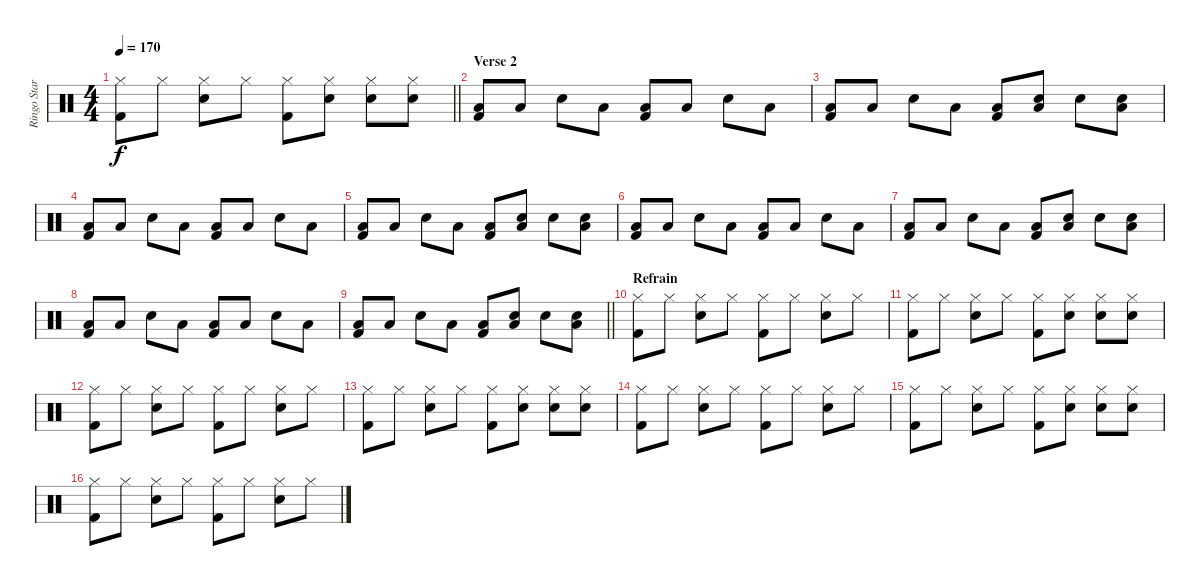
\track ("Ringo Star (Thomas)" "Ringo Star") {instrument percussion}
\staff {score}
\articulation defaults
\ts (4 4)
\tempo 170
\clef neutral
\barLineRight lightlight
\ks c
("Hi-Hat (closed)" "Kick (hit) 2").8{dy f} "Hi-Hat (closed)".8 ("Hi-Hat (closed)" "Snare (hit) 2").8 "Hi-Hat (closed)".8 ("Hi-Hat (closed)" "Kick (hit) 2").8 ("Hi-Hat (closed)" "Snare (hit) 2").8 ("Hi-Hat (closed)" "Snare (hit) 2").8 ("Hi-Hat (closed)" "Snare (hit) 2").8 |
\section ("" "Verse 2")
("Low Tom (hit)" "Kick (hit) 2").8 "Low Tom (hit)".8 "Snare (hit) 2".8 "Low Tom (hit)".8 ("Low Tom (hit)" "Kick (hit) 2").8 "Low Tom (hit)".8 "Snare (hit) 2".8 "Low Tom (hit)".8 |
("Low Tom (hit)" "Kick (hit) 2").8 "Low Tom (hit)".8 "Snare (hit) 2".8 "Low Tom (hit)".8 ("Low Tom (hit)" "Kick (hit) 2").8 ("Low Tom (hit)" "Snare (hit) 2").8 "Snare (hit) 2".8 ("Low Tom (hit)" "Snare (hit) 2").8 |
("Low Tom (hit)" "Kick (hit) 2").8 "Low Tom (hit)".8 "Snare (hit) 2".8 "Low Tom (hit)".8 ("Low Tom (hit)" "Kick (hit) 2").8 "Low Tom (hit)".8 "Snare (hit) 2".8 "Low Tom (hit)".8 |
("Low Tom (hit)" "Kick (hit) 2").8 "Low Tom (hit)".8 "Snare (hit) 2".8 "Low Tom (hit)".8 ("Low Tom (hit)" "Kick (hit) 2").8 ("Low Tom (hit)" "Snare (hit) 2").8 "Snare (hit) 2".8 ("Low Tom (hit)" "Snare (hit) 2").8 |
("Low Tom (hit)" "Kick (hit) 2").8 "Low Tom (hit)".8 "Snare (hit) 2".8 "Low Tom (hit)".8 ("Low Tom (hit)" "Kick (hit) 2").8 "Low Tom (hit)".8 "Snare (hit) 2".8 "Low Tom (hit)".8 |
("Low Tom (hit)" "Kick (hit) 2").8 "Low Tom (hit)".8 "Snare (hit) 2".8 "Low Tom (hit)".8 ("Low Tom (hit)" "Kick (hit) 2").8 ("Low Tom (hit)" "Snare (hit) 2").8 "Snare (hit) 2".8 ("Low Tom (hit)" "Snare (hit) 2").8 |
("Low Tom (hit)" "Kick (hit) 2").8 "Low Tom (hit)".8 "Snare (hit) 2".8 "Low Tom (hit)".8 ("Low Tom (hit)" "Kick (hit) 2").8 "Low Tom (hit)".8 "Snare (hit) 2".8 "Low Tom (hit)".8 |
\barLineRight lightlight
("Low Tom (hit)" "Kick (hit) 2").8 "Low Tom (hit)".8 "Snare (hit) 2".8 "Low Tom (hit)".8 ("Low Tom (hit)" "Kick (hit) 2").8 ("Low Tom (hit)" "Snare (hit) 2").8 "Snare (hit) 2".8 ("Low Tom (hit)" "Snare (hit) 2").8 |
\section ("" "Refrain")
("Hi-Hat (closed)" "Kick (hit) 2").8 "Hi-Hat (closed)".8 ("Hi-Hat (closed)" "Snare (hit) 2").8 "Hi-Hat (closed)".8 ("Hi-Hat (closed)" "Kick (hit) 2").8 "Hi-Hat (closed)".8 ("Hi-Hat (closed)" "Snare (hit) 2").8 "Hi-Hat (closed)".8 |
("Hi-Hat (closed)" "Kick (hit) 2").8 "Hi-Hat (closed)".8 ("Hi-Hat (closed)" "Snare (hit) 2").8 "Hi-Hat (closed)".8 ("Hi-Hat (closed)" "Kick (hit) 2").8 ("Hi-Hat (closed)" "Snare (hit) 2").8 ("Hi-Hat (closed)" "Snare (hit) 2").8 ("Hi-Hat (closed)" "Snare (hit) 2").8 |
("Hi-Hat (closed)" "Kick (hit) 2").8 "Hi-Hat (closed)".8 ("Hi-Hat (closed)" "Snare (hit) 2").8 "Hi-Hat (closed)".8 ("Hi-Hat (closed)" "Kick (hit) 2").8 "Hi-Hat (closed)".8 ("Hi-Hat (closed)" "Snare (hit) 2").8 "Hi-Hat (closed)".8 |
("Hi-Hat (closed)" "Kick (hit) 2").8 "Hi-Hat (closed)".8 ("Hi-Hat (closed)" "Snare (hit) 2").8 "Hi-Hat (closed)".8 ("Hi-Hat (closed)" "Kick (hit) 2").8 ("Hi-Hat (closed)" "Snare (hit) 2").8 ("Hi-Hat (closed)" "Snare (hit) 2").8 ("Hi-Hat (closed)" "Snare (hit) 2").8 |
("Hi-Hat (closed)" "Kick (hit) 2").8 "Hi-Hat (closed)".8 ("Hi-Hat (closed)" "Snare (hit) 2").8 "Hi-Hat (closed)".8 ("Hi-Hat (closed)" "Kick (hit) 2").8 "Hi-Hat (closed)".8 ("Hi-Hat (closed)" "Snare (hit) 2").8 "Hi-Hat (closed)".8 |
("Hi-Hat (closed)" "Kick (hit) 2").8 "Hi-Hat (closed)".8 ("Hi-Hat (closed)" "Snare (hit) 2").8 "Hi-Hat (closed)".8 ("Hi-Hat (closed)" "Kick (hit) 2").8 ("Hi-Hat (closed)" "Snare (hit) 2").8 ("Hi-Hat (closed)" "Snare (hit) 2").8 ("Hi-Hat (closed)" "Snare (hit) 2").8 |
("Hi-Hat (closed)" "Kick (hit) 2").8 "Hi-Hat (closed)".8 ("Hi-Hat (closed)" "Snare (hit) 2").8 "Hi-Hat (closed)".8 ("Hi-Hat (closed)" "Kick (hit) 2").8 "Hi-Hat (closed)".8 ("Hi-Hat (closed)" "Snare (hit) 2").8 "Hi-Hat (closed)".8
